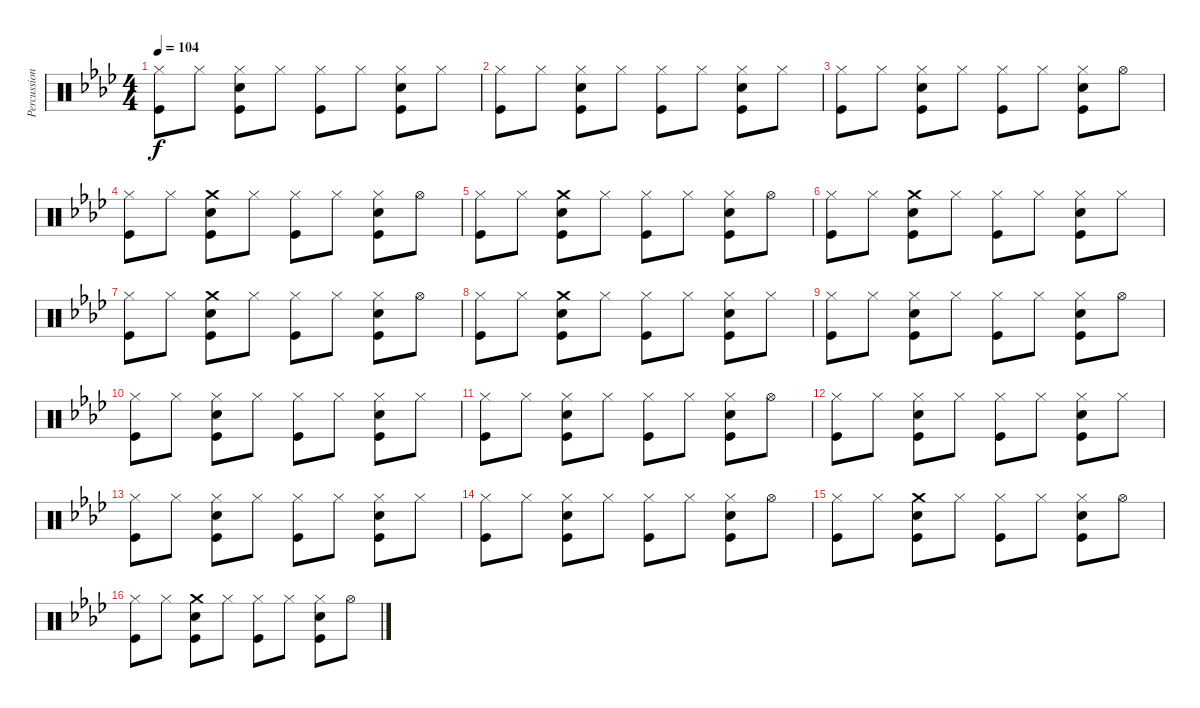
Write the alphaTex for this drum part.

\track ("Percussion" "Percussion") {instrument percussion}
\staff {score}
\articulation defaults
\ts (4 4)
\tempo 104
\clef neutral
\ks ab
("Hi-Hat (closed)" "Kick (hit)").8{dy f} "Hi-Hat (closed)".8 ("Hi-Hat (closed)" "Snare (hit) 2" "Kick (hit)").8 "Hi-Hat (closed)".8 ("Hi-Hat (closed)" "Kick (hit)").8 "Hi-Hat (closed)".8 ("Hi-Hat (closed)" "Snare (hit) 2" "Kick (hit)").8 "Hi-Hat (closed)".8 |
("Hi-Hat (closed)" "Kick (hit)").8 "Hi-Hat (closed)".8 ("Hi-Hat (closed)" "Snare (hit) 2" "Kick (hit)").8 "Hi-Hat (closed)".8 ("Hi-Hat (closed)" "Kick (hit)").8 "Hi-Hat (closed)".8 ("Hi-Hat (closed)" "Snare (hit) 2" "Kick (hit)").8 "Hi-Hat (closed)".8 |
("Hi-Hat (closed)" "Kick (hit)").8 "Hi-Hat (closed)".8 ("Hi-Hat (closed)" "Snare (hit) 2" "Kick (hit)").8 "Hi-Hat (closed)".8 ("Hi-Hat (closed)" "Kick (hit)").8 "Hi-Hat (closed)".8 ("Hi-Hat (closed)" "Snare (hit) 2" "Kick (hit)").8 "Hi-Hat (open)".8 |
("Hi-Hat (closed)" "Kick (hit)").8 "Hi-Hat (closed)".8 ("Crash medium (hit)" "Snare (hit) 2" "Kick (hit)").8 "Hi-Hat (closed)".8 ("Hi-Hat (closed)" "Kick (hit)").8 "Hi-Hat (closed)".8 ("Hi-Hat (closed)" "Snare (hit) 2" "Kick (hit)").8 "Hi-Hat (open)".8 |
("Hi-Hat (closed)" "Kick (hit)").8 "Hi-Hat (closed)".8 ("Crash medium (hit)" "Snare (hit) 2" "Kick (hit)").8 "Hi-Hat (closed)".8 ("Hi-Hat (closed)" "Kick (hit)").8 "Hi-Hat (closed)".8 ("Hi-Hat (closed)" "Snare (hit) 2" "Kick (hit)").8 "Hi-Hat (open)".8 |
("Hi-Hat (closed)" "Kick (hit)").8 "Hi-Hat (closed)".8 ("Crash medium (hit)" "Snare (hit) 2" "Kick (hit)").8 "Hi-Hat (closed)".8 ("Hi-Hat (closed)" "Kick (hit)").8 "Hi-Hat (closed)".8 ("Hi-Hat (closed)" "Snare (hit) 2" "Kick (hit)").8 "Hi-Hat (closed)".8 |
("Hi-Hat (closed)" "Kick (hit)").8 "Hi-Hat (closed)".8 ("Crash medium (hit)" "Snare (hit) 2" "Kick (hit)").8 "Hi-Hat (closed)".8 ("Hi-Hat (closed)" "Kick (hit)").8 "Hi-Hat (closed)".8 ("Hi-Hat (closed)" "Snare (hit) 2" "Kick (hit)").8 "Hi-Hat (open)".8 |
("Hi-Hat (closed)" "Kick (hit)").8 "Hi-Hat (closed)".8 ("Crash medium (hit)" "Snare (hit) 2" "Kick (hit)").8 "Hi-Hat (closed)".8 ("Hi-Hat (closed)" "Kick (hit)").8 "Hi-Hat (closed)".8 ("Hi-Hat (closed)" "Snare (hit) 2" "Kick (hit)").8 "Hi-Hat (closed)".8 |
("Hi-Hat (closed)" "Kick (hit)").8 "Hi-Hat (closed)".8 ("Hi-Hat (closed)" "Snare (hit) 2" "Kick (hit)").8 "Hi-Hat (closed)".8 ("Hi-Hat (closed)" "Kick (hit)").8 "Hi-Hat (closed)".8 ("Hi-Hat (closed)" "Snare (hit) 2" "Kick (hit)").8 "Hi-Hat (open)".8 |
("Hi-Hat (closed)" "Kick (hit)").8 "Hi-Hat (closed)".8 ("Hi-Hat (closed)" "Snare (hit) 2" "Kick (hit)").8 "Hi-Hat (closed)".8 ("Hi-Hat (closed)" "Kick (hit)").8 "Hi-Hat (closed)".8 ("Hi-Hat (closed)" "Snare (hit) 2" "Kick (hit)").8 "Hi-Hat (closed)".8 |
("Hi-Hat (closed)" "Kick (hit)").8 "Hi-Hat (closed)".8 ("Hi-Hat (closed)" "Snare (hit) 2" "Kick (hit)").8 "Hi-Hat (closed)".8 ("Hi-Hat (closed)" "Kick (hit)").8 "Hi-Hat (closed)".8 ("Hi-Hat (closed)" "Snare (hit) 2" "Kick (hit)").8 "Hi-Hat (open)".8 |
("Hi-Hat (closed)" "Kick (hit)").8 "Hi-Hat (closed)".8 ("Hi-Hat (closed)" "Snare (hit) 2" "Kick (hit)").8 "Hi-Hat (closed)".8 ("Hi-Hat (closed)" "Kick (hit)").8 "Hi-Hat (closed)".8 ("Hi-Hat (closed)" "Snare (hit) 2" "Kick (hit)").8 "Hi-Hat (closed)".8 |
("Hi-Hat (closed)" "Kick (hit)").8 "Hi-Hat (closed)".8 ("Hi-Hat (closed)" "Snare (hit) 2" "Kick (hit)").8 "Hi-Hat (closed)".8 ("Hi-Hat (closed)" "Kick (hit)").8 "Hi-Hat (closed)".8 ("Hi-Hat (closed)" "Snare (hit) 2" "Kick (hit)").8 "Hi-Hat (closed)".8 |
("Hi-Hat (closed)" "Kick (hit)").8 "Hi-Hat (closed)".8 ("Hi-Hat (closed)" "Snare (hit) 2" "Kick (hit)").8 "Hi-Hat (closed)".8 ("Hi-Hat (closed)" "Kick (hit)").8 "Hi-Hat (closed)".8 ("Hi-Hat (closed)" "Snare (hit) 2" "Kick (hit)").8 "Hi-Hat (open)".8 |
("Hi-Hat (closed)" "Kick (hit)").8 "Hi-Hat (closed)".8 ("Crash medium (hit)" "Snare (hit) 2" "Kick (hit)").8 "Hi-Hat (closed)".8 ("Hi-Hat (closed)" "Kick (hit)").8 "Hi-Hat (closed)".8 ("Hi-Hat (closed)" "Snare (hit) 2" "Kick (hit)").8 "Hi-Hat (open)".8 |
("Hi-Hat (closed)" "Kick (hit)").8 "Hi-Hat (closed)".8 ("Crash medium (hit)" "Snare (hit) 2" "Kick (hit)").8 "Hi-Hat (closed)".8 ("Hi-Hat (closed)" "Kick (hit)").8 "Hi-Hat (closed)".8 ("Hi-Hat (closed)" "Snare (hit) 2" "Kick (hit)").8 "Hi-Hat (open)".8
